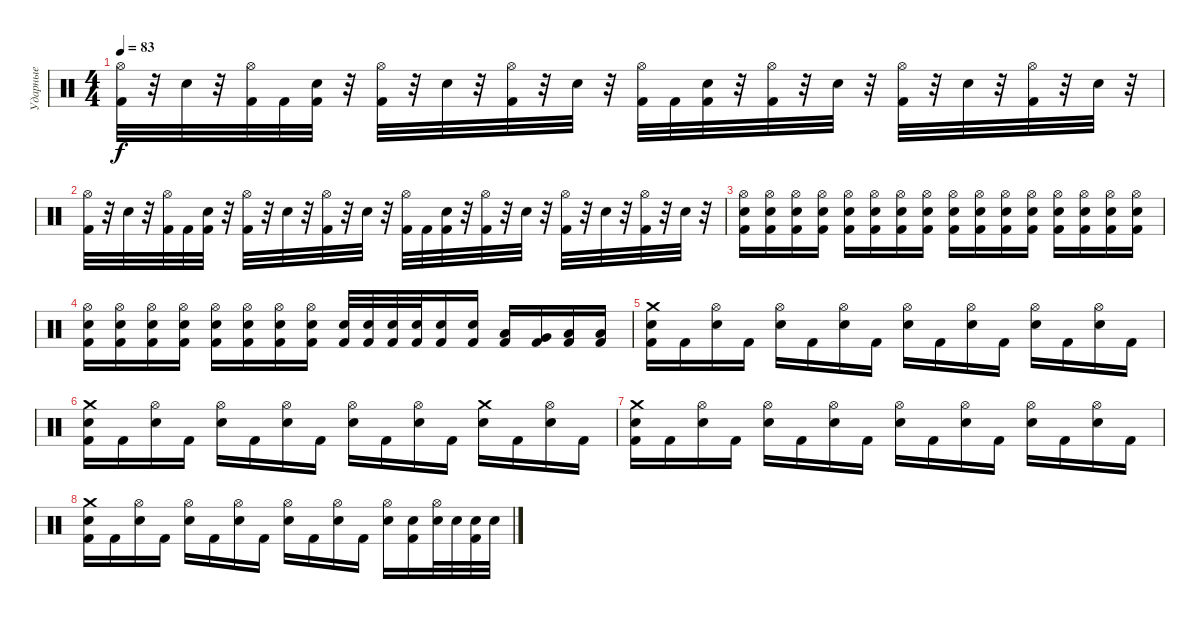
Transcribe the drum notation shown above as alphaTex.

\track ("Ударные" "Ударные") {instrument percussion}
\staff {score}
\articulation defaults
\ts (4 4)
\tempo 83
\clef neutral
\ks c
("Hi-Hat (open)" "Kick (hit) 2").32{dy f} r.32 "Electric Snare (hit)".32 r.32 ("Hi-Hat (open)" "Kick (hit) 2").32 "Kick (hit) 2".32 ("Electric Snare (hit)" "Kick (hit) 2").32 r.32 ("Hi-Hat (open)" "Kick (hit) 2").32 r.32 "Electric Snare (hit)".32 r.32 ("Hi-Hat (open)" "Kick (hit) 2").32 r.32 "Electric Snare (hit)".32 r.32 ("Hi-Hat (open)" "Kick (hit) 2").32 "Kick (hit) 2".32 ("Electric Snare (hit)" "Kick (hit) 2").32 r.32 ("Hi-Hat (open)" "Kick (hit) 2").32 r.32 "Electric Snare (hit)".32 r.32 ("Hi-Hat (open)" "Kick (hit) 2").32 r.32 "Electric Snare (hit)".32 r.32 ("Hi-Hat (open)" "Kick (hit) 2").32 r.32 "Electric Snare (hit)".32 r.32 |
("Hi-Hat (open)" "Kick (hit) 2").32 r.32 "Electric Snare (hit)".32 r.32 ("Hi-Hat (open)" "Kick (hit) 2").32 "Kick (hit) 2".32 ("Electric Snare (hit)" "Kick (hit) 2").32 r.32 ("Hi-Hat (open)" "Kick (hit) 2").32 r.32 "Electric Snare (hit)".32 r.32 ("Hi-Hat (open)" "Kick (hit) 2").32 r.32 "Electric Snare (hit)".32 r.32 ("Hi-Hat (open)" "Kick (hit) 2").32 "Kick (hit) 2".32 ("Electric Snare (hit)" "Kick (hit) 2").32 r.32 ("Hi-Hat (open)" "Kick (hit) 2").32 r.32 "Electric Snare (hit)".32 r.32 ("Hi-Hat (open)" "Kick (hit) 2").32 r.32 "Electric Snare (hit)".32 r.32 ("Hi-Hat (open)" "Kick (hit) 2").32 r.32 "Electric Snare (hit)".32 r.32 |
("Hi-Hat (open)" "Electric Snare (hit)" "Kick (hit) 2").16 ("Hi-Hat (open)" "Electric Snare (hit)" "Kick (hit) 2").16 ("Hi-Hat (open)" "Electric Snare (hit)" "Kick (hit) 2").16 ("Hi-Hat (open)" "Electric Snare (hit)" "Kick (hit) 2").16 ("Hi-Hat (open)" "Electric Snare (hit)" "Kick (hit) 2").16 ("Hi-Hat (open)" "Electric Snare (hit)" "Kick (hit) 2").16 ("Hi-Hat (open)" "Electric Snare (hit)" "Kick (hit) 2").16 ("Hi-Hat (open)" "Electric Snare (hit)" "Kick (hit) 2").16 ("Hi-Hat (open)" "Electric Snare (hit)" "Kick (hit) 2").16 ("Hi-Hat (open)" "Electric Snare (hit)" "Kick (hit) 2").16 ("Hi-Hat (open)" "Electric Snare (hit)" "Kick (hit) 2").16 ("Hi-Hat (open)" "Electric Snare (hit)" "Kick (hit) 2").16 ("Hi-Hat (open)" "Electric Snare (hit)" "Kick (hit) 2").16 ("Hi-Hat (open)" "Electric Snare (hit)" "Kick (hit) 2").16 ("Hi-Hat (open)" "Electric Snare (hit)" "Kick (hit) 2").16 ("Hi-Hat (open)" "Electric Snare (hit)" "Kick (hit) 2").16 |
("Hi-Hat (open)" "Electric Snare (hit)" "Kick (hit) 2").16 ("Hi-Hat (open)" "Electric Snare (hit)" "Kick (hit) 2").16 ("Hi-Hat (open)" "Electric Snare (hit)" "Kick (hit) 2").16 ("Hi-Hat (open)" "Electric Snare (hit)" "Kick (hit) 2").16 ("Hi-Hat (open)" "Electric Snare (hit)" "Kick (hit) 2").16 ("Hi-Hat (open)" "Electric Snare (hit)" "Kick (hit) 2").16 ("Hi-Hat (open)" "Electric Snare (hit)" "Kick (hit) 2").16 ("Hi-Hat (open)" "Electric Snare (hit)" "Kick (hit) 2").16 ("Electric Snare (hit)" "Kick (hit) 2").32 ("Electric Snare (hit)" "Kick (hit) 2").32 ("Electric Snare (hit)" "Kick (hit) 2").32 ("Electric Snare (hit)" "Kick (hit) 2").32 ("Electric Snare (hit)" "Kick (hit) 2").16 ("Electric Snare (hit)" "Kick (hit) 2").16 ("Low Tom (hit)" "Kick (hit) 2").16 ("Very Low Tom (hit)" "Kick (hit) 2").16 ("Low Floor Tom (hit)" "Kick (hit) 2").16 ("Low Tom (hit)" "Kick (hit) 2").16 |
("Crash medium (hit)" "Electric Snare (hit)" "Kick (hit) 2").16 "Kick (hit) 2".16 ("Hi-Hat (open)" "Electric Snare (hit)").16 "Kick (hit) 2".16 ("Hi-Hat (open)" "Electric Snare (hit)").16 "Kick (hit) 2".16 ("Hi-Hat (open)" "Electric Snare (hit)").16 "Kick (hit) 2".16 ("Hi-Hat (open)" "Electric Snare (hit)").16 "Kick (hit) 2".16 ("Hi-Hat (open)" "Electric Snare (hit)").16 "Kick (hit) 2".16 ("Hi-Hat (open)" "Electric Snare (hit)").16 "Kick (hit) 2".16 ("Hi-Hat (open)" "Electric Snare (hit)").16 "Kick (hit) 2".16 |
("Crash medium (hit)" "Electric Snare (hit)" "Kick (hit) 2").16 "Kick (hit) 2".16 ("Hi-Hat (open)" "Electric Snare (hit)").16 "Kick (hit) 2".16 ("Hi-Hat (open)" "Electric Snare (hit)").16 "Kick (hit) 2".16 ("Hi-Hat (open)" "Electric Snare (hit)").16 "Kick (hit) 2".16 ("Hi-Hat (open)" "Electric Snare (hit)").16 "Kick (hit) 2".16 ("Hi-Hat (open)" "Electric Snare (hit)").16 "Kick (hit) 2".16 ("Crash medium (hit)" "Electric Snare (hit)").16 "Kick (hit) 2".16 ("Hi-Hat (open)" "Electric Snare (hit)").16 "Kick (hit) 2".16 |
("Crash medium (hit)" "Electric Snare (hit)" "Kick (hit) 2").16 "Kick (hit) 2".16 ("Hi-Hat (open)" "Electric Snare (hit)").16 "Kick (hit) 2".16 ("Hi-Hat (open)" "Electric Snare (hit)").16 "Kick (hit) 2".16 ("Hi-Hat (open)" "Electric Snare (hit)").16 "Kick (hit) 2".16 ("Hi-Hat (open)" "Electric Snare (hit)").16 "Kick (hit) 2".16 ("Hi-Hat (open)" "Electric Snare (hit)").16 "Kick (hit) 2".16 ("Hi-Hat (open)" "Electric Snare (hit)").16 "Kick (hit) 2".16 ("Hi-Hat (open)" "Electric Snare (hit)").16 "Kick (hit) 2".16 |
("Crash medium (hit)" "Electric Snare (hit)" "Kick (hit) 2").16 "Kick (hit) 2".16 ("Hi-Hat (open)" "Electric Snare (hit)").16 "Kick (hit) 2".16 ("Hi-Hat (open)" "Electric Snare (hit)").16 "Kick (hit) 2".16 ("Hi-Hat (open)" "Electric Snare (hit)").16 "Kick (hit) 2".16 ("Hi-Hat (open)" "Electric Snare (hit)").16 "Kick (hit) 2".16 ("Hi-Hat (open)" "Electric Snare (hit)").16 "Kick (hit) 2".16 ("Hi-Hat (open)" "Electric Snare (hit)").16 ("Electric Snare (hit)" "Kick (hit) 2").16 ("Hi-Hat (open)" "Electric Snare (hit)").32 "Electric Snare (hit)".32 ("Electric Snare (hit)" "Kick (hit) 2").32 "Electric Snare (hit)".32
